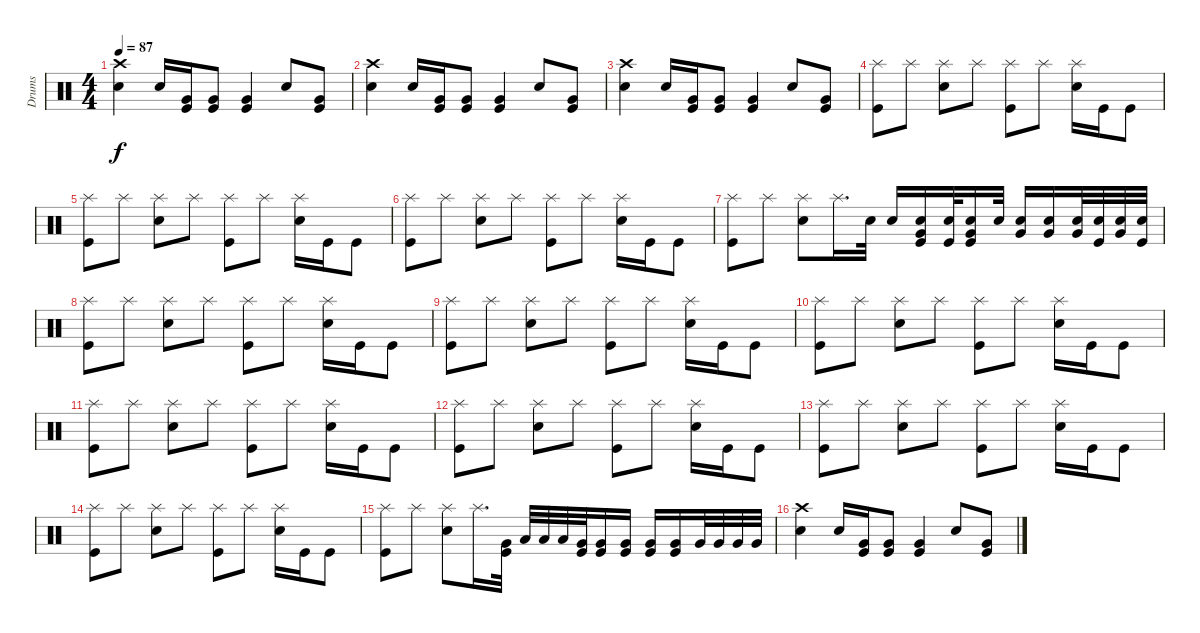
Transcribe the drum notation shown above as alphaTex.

\track ("Drums" "Drums") {instrument percussion}
\staff {score}
\articulation defaults
\ts (4 4)
\tempo 87
\clef neutral
\ks c
("Crash high (hit)" "Electric Snare (hit)").4{dy f} "Electric Snare (hit)".16 ("Kick (hit)" "Very Low Tom (hit)").16 ("Kick (hit)" "Very Low Tom (hit)").8 ("Kick (hit)" "Very Low Tom (hit)").4 "Electric Snare (hit)".8 ("Kick (hit)" "Very Low Tom (hit)").8 |
("Crash high (hit)" "Electric Snare (hit)").4 "Electric Snare (hit)".16 ("Kick (hit)" "Very Low Tom (hit)").16 ("Kick (hit)" "Very Low Tom (hit)").8 ("Kick (hit)" "Very Low Tom (hit)").4 "Electric Snare (hit)".8 ("Kick (hit)" "Very Low Tom (hit)").8 |
("Crash high (hit)" "Electric Snare (hit)").4 "Electric Snare (hit)".16 ("Kick (hit)" "Very Low Tom (hit)").16 ("Kick (hit)" "Very Low Tom (hit)").8 ("Kick (hit)" "Very Low Tom (hit)").4 "Electric Snare (hit)".8 ("Kick (hit)" "Very Low Tom (hit)").8 |
("Splash (hit)" "Kick (hit)").8 "Splash (hit)".8 ("Splash (hit)" "Electric Snare (hit)").8 "Splash (hit)".8 ("Splash (hit)" "Kick (hit)").8 "Splash (hit)".8 ("Splash (hit)" "Electric Snare (hit)").16 "Kick (hit)".16 "Kick (hit)".8 |
("Splash (hit)" "Kick (hit)").8 "Splash (hit)".8 ("Splash (hit)" "Electric Snare (hit)").8 "Splash (hit)".8 ("Splash (hit)" "Kick (hit)").8 "Splash (hit)".8 ("Splash (hit)" "Electric Snare (hit)").16 "Kick (hit)".16 "Kick (hit)".8 |
("Splash (hit)" "Kick (hit)").8 "Splash (hit)".8 ("Splash (hit)" "Electric Snare (hit)").8 "Splash (hit)".8 ("Splash (hit)" "Kick (hit)").8 "Splash (hit)".8 ("Splash (hit)" "Electric Snare (hit)").16 "Kick (hit)".16 "Kick (hit)".8 |
("Splash (hit)" "Kick (hit)").8 "Splash (hit)".8 ("Splash (hit)" "Electric Snare (hit)").8 "Splash (hit)".16{d} "Electric Snare (hit)".32 "Electric Snare (hit)".16 ("Kick (hit)" "Electric Snare (hit)" "Very Low Tom (hit)").16 ("Kick (hit)" "Electric Snare (hit)").32 ("Kick (hit)" "Electric Snare (hit)" "Very Low Tom (hit)").16 "Electric Snare (hit)".32 ("Electric Snare (hit)" "Very Low Tom (hit)").16 ("Electric Snare (hit)" "Very Low Tom (hit)").16 ("Electric Snare (hit)" "Very Low Tom (hit)").32 ("Kick (hit)" "Electric Snare (hit)").32 ("Electric Snare (hit)" "Very Low Tom (hit)").32 ("Kick (hit)" "Electric Snare (hit)").32 |
("Splash (hit)" "Kick (hit)").8 "Splash (hit)".8 ("Splash (hit)" "Electric Snare (hit)").8 "Splash (hit)".8 ("Splash (hit)" "Kick (hit)").8 "Splash (hit)".8 ("Splash (hit)" "Electric Snare (hit)").16 "Kick (hit)".16 "Kick (hit)".8 |
("Splash (hit)" "Kick (hit)").8 "Splash (hit)".8 ("Splash (hit)" "Electric Snare (hit)").8 "Splash (hit)".8 ("Splash (hit)" "Kick (hit)").8 "Splash (hit)".8 ("Splash (hit)" "Electric Snare (hit)").16 "Kick (hit)".16 "Kick (hit)".8 |
("Splash (hit)" "Kick (hit)").8 "Splash (hit)".8 ("Splash (hit)" "Electric Snare (hit)").8 "Splash (hit)".8 ("Splash (hit)" "Kick (hit)").8 "Splash (hit)".8 ("Splash (hit)" "Electric Snare (hit)").16 "Kick (hit)".16 "Kick (hit)".8 |
("Splash (hit)" "Kick (hit)").8 "Splash (hit)".8 ("Splash (hit)" "Electric Snare (hit)").8 "Splash (hit)".8 ("Splash (hit)" "Kick (hit)").8 "Splash (hit)".8 ("Splash (hit)" "Electric Snare (hit)").16 "Kick (hit)".16 "Kick (hit)".8 |
("Splash (hit)" "Kick (hit)").8 "Splash (hit)".8 ("Splash (hit)" "Electric Snare (hit)").8 "Splash (hit)".8 ("Splash (hit)" "Kick (hit)").8 "Splash (hit)".8 ("Splash (hit)" "Electric Snare (hit)").16 "Kick (hit)".16 "Kick (hit)".8 |
("Splash (hit)" "Kick (hit)").8 "Splash (hit)".8 ("Splash (hit)" "Electric Snare (hit)").8 "Splash (hit)".8 ("Splash (hit)" "Kick (hit)").8 "Splash (hit)".8 ("Splash (hit)" "Electric Snare (hit)").16 "Kick (hit)".16 "Kick (hit)".8 |
("Splash (hit)" "Kick (hit)").8 "Splash (hit)".8 ("Splash (hit)" "Electric Snare (hit)").8 "Splash (hit)".8 ("Splash (hit)" "Kick (hit)").8 "Splash (hit)".8 ("Splash (hit)" "Electric Snare (hit)").16 "Kick (hit)".16 "Kick (hit)".8 |
("Splash (hit)" "Kick (hit)").8 "Splash (hit)".8 ("Splash (hit)" "Electric Snare (hit)").8 "Splash (hit)".16{d} ("Kick (hit)" "Very Low Tom (hit)").32 "Low Tom (hit)".32 "Low Tom (hit)".32 "Low Tom (hit)".32 ("Kick (hit)" "Very Low Tom (hit)").32 ("Kick (hit)" "Very Low Tom (hit)").16 ("Kick (hit)" "Very Low Tom (hit)").16 ("Kick (hit)" "Very Low Tom (hit)").16 ("Kick (hit)" "Very Low Tom (hit)").16 "Very Low Tom (hit)".32 "Very Low Tom (hit)".32 "Very Low Tom (hit)".32 "Very Low Tom (hit)".32 |
("Crash high (hit)" "Electric Snare (hit)").4 "Electric Snare (hit)".16 ("Kick (hit)" "Very Low Tom (hit)").16 ("Kick (hit)" "Very Low Tom (hit)").8 ("Kick (hit)" "Very Low Tom (hit)").4 "Electric Snare (hit)".8 ("Kick (hit)" "Very Low Tom (hit)").8
